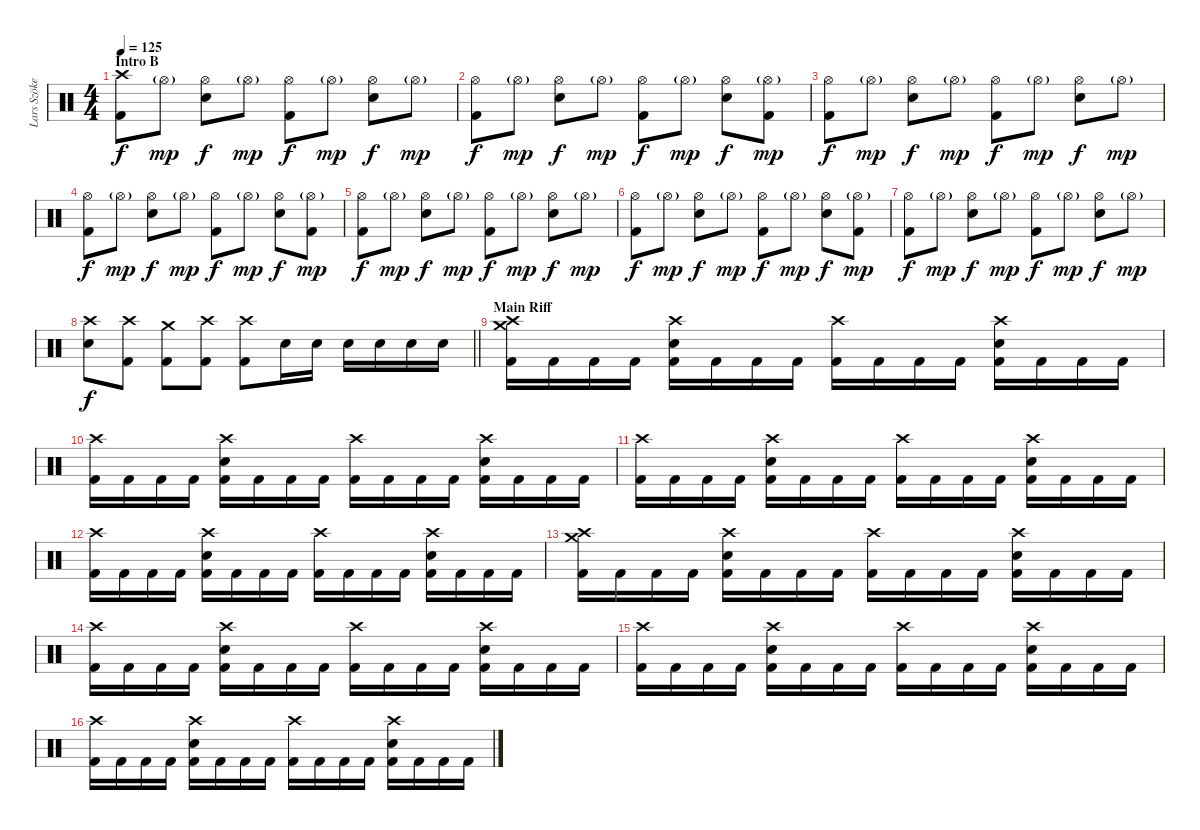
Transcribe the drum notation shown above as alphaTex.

\track ("Lars Szöke" "Lars Szöke") {instrument percussion}
\staff {score}
\articulation defaults
\ts (4 4)
\section ("" "Intro B")
\tempo 125
\clef neutral
\ks c
("Crash high (hit)" "Kick (hit) 2").8{dy f} "Hi-Hat (open)"{g}.8{dy mp} ("Hi-Hat (open)" "Snare (hit) 2").8{dy f} "Hi-Hat (open)"{g}.8{dy mp} ("Hi-Hat (open)" "Kick (hit) 2").8{dy f} "Hi-Hat (open)"{g}.8{dy mp} ("Hi-Hat (open)" "Snare (hit) 2").8{dy f} "Hi-Hat (open)"{g}.8{dy mp} |
("Hi-Hat (open)" "Kick (hit) 2").8{dy f} "Hi-Hat (open)"{g}.8{dy mp} ("Hi-Hat (open)" "Snare (hit) 2").8{dy f} "Hi-Hat (open)"{g}.8{dy mp} ("Hi-Hat (open)" "Kick (hit) 2").8{dy f} "Hi-Hat (open)"{g}.8{dy mp} ("Hi-Hat (open)" "Snare (hit) 2").8{dy f} ("Hi-Hat (open)"{g} "Kick (hit) 2").8{dy mp} |
("Hi-Hat (open)" "Kick (hit) 2").8{dy f} "Hi-Hat (open)"{g}.8{dy mp} ("Hi-Hat (open)" "Snare (hit) 2").8{dy f} "Hi-Hat (open)"{g}.8{dy mp} ("Hi-Hat (open)" "Kick (hit) 2").8{dy f} "Hi-Hat (open)"{g}.8{dy mp} ("Hi-Hat (open)" "Snare (hit) 2").8{dy f} "Hi-Hat (open)"{g}.8{dy mp} |
("Hi-Hat (open)" "Kick (hit) 2").8{dy f} "Hi-Hat (open)"{g}.8{dy mp} ("Hi-Hat (open)" "Snare (hit) 2").8{dy f} "Hi-Hat (open)"{g}.8{dy mp} ("Hi-Hat (open)" "Kick (hit) 2").8{dy f} "Hi-Hat (open)"{g}.8{dy mp} ("Hi-Hat (open)" "Snare (hit) 2").8{dy f} ("Hi-Hat (open)"{g} "Kick (hit) 2").8{dy mp} |
("Hi-Hat (open)" "Kick (hit) 2").8{dy f} "Hi-Hat (open)"{g}.8{dy mp} ("Hi-Hat (open)" "Snare (hit) 2").8{dy f} "Hi-Hat (open)"{g}.8{dy mp} ("Hi-Hat (open)" "Kick (hit) 2").8{dy f} "Hi-Hat (open)"{g}.8{dy mp} ("Hi-Hat (open)" "Snare (hit) 2").8{dy f} "Hi-Hat (open)"{g}.8{dy mp} |
("Hi-Hat (open)" "Kick (hit) 2").8{dy f} "Hi-Hat (open)"{g}.8{dy mp} ("Hi-Hat (open)" "Snare (hit) 2").8{dy f} "Hi-Hat (open)"{g}.8{dy mp} ("Hi-Hat (open)" "Kick (hit) 2").8{dy f} "Hi-Hat (open)"{g}.8{dy mp} ("Hi-Hat (open)" "Snare (hit) 2").8{dy f} ("Hi-Hat (open)"{g} "Kick (hit) 2").8{dy mp} |
("Hi-Hat (open)" "Kick (hit) 2").8{dy f} "Hi-Hat (open)"{g}.8{dy mp} ("Hi-Hat (open)" "Snare (hit) 2").8{dy f} "Hi-Hat (open)"{g}.8{dy mp} ("Hi-Hat (open)" "Kick (hit) 2").8{dy f} "Hi-Hat (open)"{g}.8{dy mp} ("Hi-Hat (open)" "Snare (hit) 2").8{dy f} "Hi-Hat (open)"{g}.8{dy mp} |
\barLineRight lightlight
("Crash high (hit)" "Snare (hit) 2").8{dy f} ("Crash high (hit)" "Kick (hit) 2").8 ("Crash medium (hit)" "Kick (hit) 2").8 ("Crash high (hit)" "Kick (hit) 2").8 ("Crash high (hit)" "Kick (hit) 2").8 "Snare (hit) 2".16 "Snare (hit) 2".16 "Snare (hit) 2".16 "Snare (hit) 2".16 "Snare (hit) 2".16 "Snare (hit) 2".16 |
\section ("" "Main Riff")
("Crash medium (hit)" "Crash high (hit)" "Kick (hit) 2").16 "Kick (hit) 2".16 "Kick (hit) 2".16 "Kick (hit) 2".16 ("Crash high (hit)" "Snare (hit) 2" "Kick (hit) 2").16 "Kick (hit) 2".16 "Kick (hit) 2".16 "Kick (hit) 2".16 ("Crash high (hit)" "Kick (hit) 2").16 "Kick (hit) 2".16 "Kick (hit) 2".16 "Kick (hit) 2".16 ("Crash high (hit)" "Snare (hit) 2" "Kick (hit) 2").16 "Kick (hit) 2".16 "Kick (hit) 2".16 "Kick (hit) 2".16 |
("Crash high (hit)" "Kick (hit) 2").16 "Kick (hit) 2".16 "Kick (hit) 2".16 "Kick (hit) 2".16 ("Crash high (hit)" "Snare (hit) 2" "Kick (hit) 2").16 "Kick (hit) 2".16 "Kick (hit) 2".16 "Kick (hit) 2".16 ("Crash high (hit)" "Kick (hit) 2").16 "Kick (hit) 2".16 "Kick (hit) 2".16 "Kick (hit) 2".16 ("Crash high (hit)" "Snare (hit) 2" "Kick (hit) 2").16 "Kick (hit) 2".16 "Kick (hit) 2".16 "Kick (hit) 2".16 |
("Crash high (hit)" "Kick (hit) 2").16 "Kick (hit) 2".16 "Kick (hit) 2".16 "Kick (hit) 2".16 ("Crash high (hit)" "Snare (hit) 2" "Kick (hit) 2").16 "Kick (hit) 2".16 "Kick (hit) 2".16 "Kick (hit) 2".16 ("Crash high (hit)" "Kick (hit) 2").16 "Kick (hit) 2".16 "Kick (hit) 2".16 "Kick (hit) 2".16 ("Crash high (hit)" "Snare (hit) 2" "Kick (hit) 2").16 "Kick (hit) 2".16 "Kick (hit) 2".16 "Kick (hit) 2".16 |
("Crash high (hit)" "Kick (hit) 2").16 "Kick (hit) 2".16 "Kick (hit) 2".16 "Kick (hit) 2".16 ("Crash high (hit)" "Snare (hit) 2" "Kick (hit) 2").16 "Kick (hit) 2".16 "Kick (hit) 2".16 "Kick (hit) 2".16 ("Crash high (hit)" "Kick (hit) 2").16 "Kick (hit) 2".16 "Kick (hit) 2".16 "Kick (hit) 2".16 ("Crash high (hit)" "Snare (hit) 2" "Kick (hit) 2").16 "Kick (hit) 2".16 "Kick (hit) 2".16 "Kick (hit) 2".16 |
("Crash medium (hit)" "Crash high (hit)" "Kick (hit) 2").16 "Kick (hit) 2".16 "Kick (hit) 2".16 "Kick (hit) 2".16 ("Crash high (hit)" "Snare (hit) 2" "Kick (hit) 2").16 "Kick (hit) 2".16 "Kick (hit) 2".16 "Kick (hit) 2".16 ("Crash high (hit)" "Kick (hit) 2").16 "Kick (hit) 2".16 "Kick (hit) 2".16 "Kick (hit) 2".16 ("Crash high (hit)" "Snare (hit) 2" "Kick (hit) 2").16 "Kick (hit) 2".16 "Kick (hit) 2".16 "Kick (hit) 2".16 |
("Crash high (hit)" "Kick (hit) 2").16 "Kick (hit) 2".16 "Kick (hit) 2".16 "Kick (hit) 2".16 ("Crash high (hit)" "Snare (hit) 2" "Kick (hit) 2").16 "Kick (hit) 2".16 "Kick (hit) 2".16 "Kick (hit) 2".16 ("Crash high (hit)" "Kick (hit) 2").16 "Kick (hit) 2".16 "Kick (hit) 2".16 "Kick (hit) 2".16 ("Crash high (hit)" "Snare (hit) 2" "Kick (hit) 2").16 "Kick (hit) 2".16 "Kick (hit) 2".16 "Kick (hit) 2".16 |
("Crash high (hit)" "Kick (hit) 2").16 "Kick (hit) 2".16 "Kick (hit) 2".16 "Kick (hit) 2".16 ("Crash high (hit)" "Snare (hit) 2" "Kick (hit) 2").16 "Kick (hit) 2".16 "Kick (hit) 2".16 "Kick (hit) 2".16 ("Crash high (hit)" "Kick (hit) 2").16 "Kick (hit) 2".16 "Kick (hit) 2".16 "Kick (hit) 2".16 ("Crash high (hit)" "Snare (hit) 2" "Kick (hit) 2").16 "Kick (hit) 2".16 "Kick (hit) 2".16 "Kick (hit) 2".16 |
("Crash high (hit)" "Kick (hit) 2").16 "Kick (hit) 2".16 "Kick (hit) 2".16 "Kick (hit) 2".16 ("Crash high (hit)" "Snare (hit) 2" "Kick (hit) 2").16 "Kick (hit) 2".16 "Kick (hit) 2".16 "Kick (hit) 2".16 ("Crash high (hit)" "Kick (hit) 2").16 "Kick (hit) 2".16 "Kick (hit) 2".16 "Kick (hit) 2".16 ("Crash high (hit)" "Snare (hit) 2" "Kick (hit) 2").16 "Kick (hit) 2".16 "Kick (hit) 2".16 "Kick (hit) 2".16
